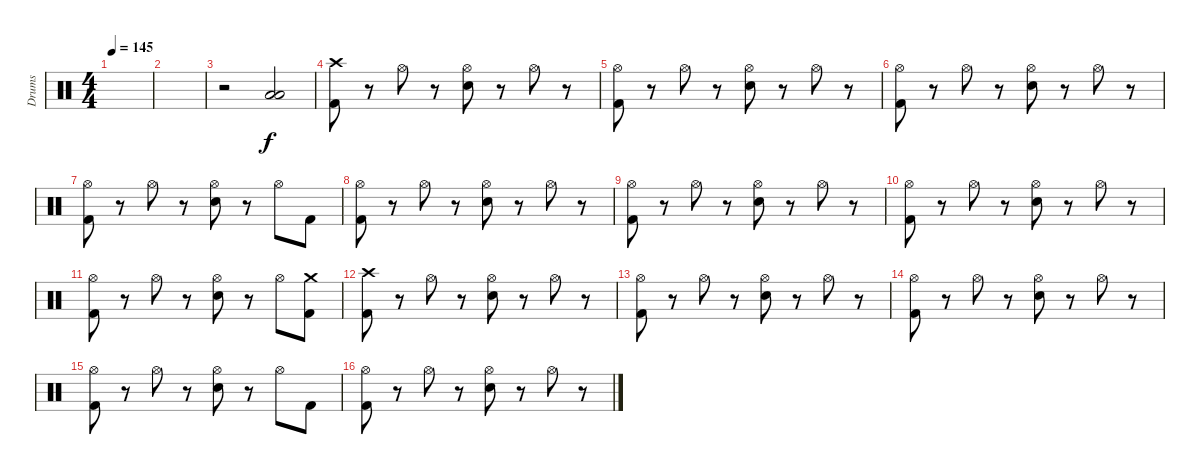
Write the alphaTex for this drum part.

\track ("Drums" "Drums") {instrument percussion}
\staff {score}
\articulation defaults
\ts (4 4)
\tempo 145
\clef neutral
\ks c
|
|
r.2 ("Low Floor Tom (hit)" "Low Floor Tom (hit)").2 |
("Crash high (hit)" "Kick (hit) 2").8 r.8 "Hi-Hat (open)".8 r.8 ("Hi-Hat (open)" "Electric Snare (hit)").8 r.8 "Hi-Hat (open)".8 r.8 |
("Hi-Hat (open)" "Kick (hit) 2").8 r.8 "Hi-Hat (open)".8 r.8 ("Hi-Hat (open)" "Electric Snare (hit)").8 r.8 "Hi-Hat (open)".8 r.8 |
("Hi-Hat (open)" "Kick (hit) 2").8 r.8 "Hi-Hat (open)".8 r.8 ("Hi-Hat (open)" "Electric Snare (hit)").8 r.8 "Hi-Hat (open)".8 r.8 |
("Hi-Hat (open)" "Kick (hit) 2").8 r.8 "Hi-Hat (open)".8 r.8 ("Hi-Hat (open)" "Electric Snare (hit)").8 r.8 "Hi-Hat (open)".8 "Kick (hit) 2".8 |
("Hi-Hat (open)" "Kick (hit) 2").8 r.8 "Hi-Hat (open)".8 r.8 ("Hi-Hat (open)" "Electric Snare (hit)").8 r.8 "Hi-Hat (open)".8 r.8 |
("Hi-Hat (open)" "Kick (hit) 2").8 r.8 "Hi-Hat (open)".8 r.8 ("Hi-Hat (open)" "Electric Snare (hit)").8 r.8 "Hi-Hat (open)".8 r.8 |
("Hi-Hat (open)" "Kick (hit) 2").8 r.8 "Hi-Hat (open)".8 r.8 ("Hi-Hat (open)" "Electric Snare (hit)").8 r.8 "Hi-Hat (open)".8 r.8 |
("Hi-Hat (open)" "Kick (hit) 2").8 r.8 "Hi-Hat (open)".8 r.8 ("Hi-Hat (open)" "Electric Snare (hit)").8 r.8 "Hi-Hat (open)".8 ("Crash medium (hit)" "Kick (hit) 2").8 |
("Crash high (hit)" "Kick (hit) 2").8 r.8 "Hi-Hat (open)".8 r.8 ("Hi-Hat (open)" "Electric Snare (hit)").8 r.8 "Hi-Hat (open)".8 r.8 |
("Hi-Hat (open)" "Kick (hit) 2").8 r.8 "Hi-Hat (open)".8 r.8 ("Hi-Hat (open)" "Electric Snare (hit)").8 r.8 "Hi-Hat (open)".8 r.8 |
("Hi-Hat (open)" "Kick (hit) 2").8 r.8 "Hi-Hat (open)".8 r.8 ("Hi-Hat (open)" "Electric Snare (hit)").8 r.8 "Hi-Hat (open)".8 r.8 |
("Hi-Hat (open)" "Kick (hit) 2").8 r.8 "Hi-Hat (open)".8 r.8 ("Hi-Hat (open)" "Electric Snare (hit)").8 r.8 "Hi-Hat (open)".8 "Kick (hit) 2".8 |
("Hi-Hat (open)" "Kick (hit) 2").8 r.8 "Hi-Hat (open)".8 r.8 ("Hi-Hat (open)" "Electric Snare (hit)").8 r.8 "Hi-Hat (open)".8 r.8
